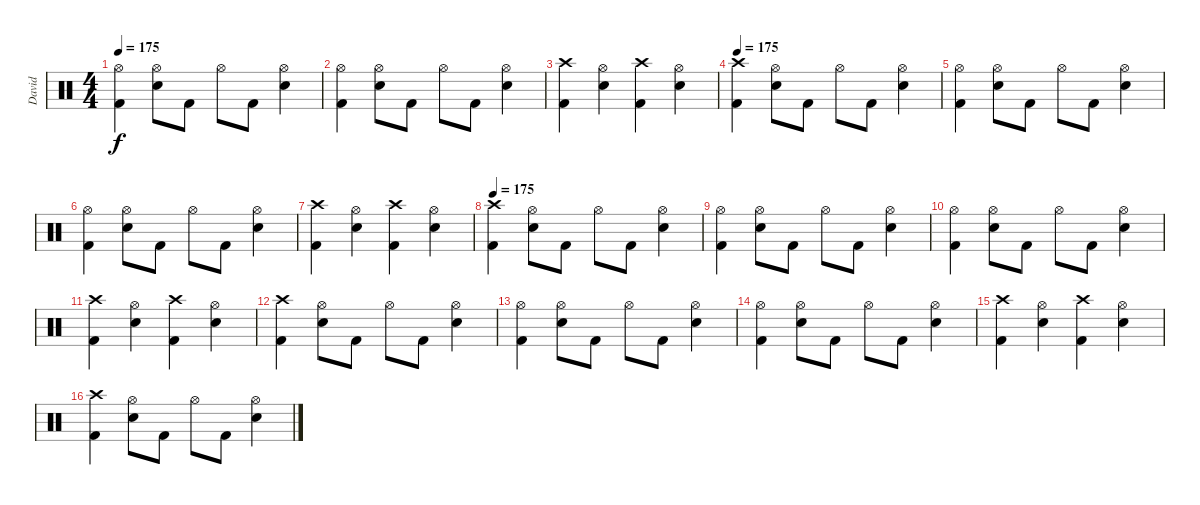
\track ("David" "David") {instrument percussion}
\staff {score}
\articulation defaults
\ts (4 4)
\tempo 175
\clef neutral
\ks c
("Hi-Hat (open)" "Kick (hit) 2").4{dy f} ("Hi-Hat (open)" "Snare (hit) 2").8 "Kick (hit) 2".8 "Hi-Hat (open)".8 "Kick (hit) 2".8 ("Hi-Hat (open)" "Snare (hit) 2").4 |
("Hi-Hat (open)" "Kick (hit) 2").4 ("Hi-Hat (open)" "Snare (hit) 2").8 "Kick (hit) 2".8 "Hi-Hat (open)".8 "Kick (hit) 2".8 ("Hi-Hat (open)" "Snare (hit) 2").4 |
("Crash high (hit)" "Kick (hit) 2").4 ("Hi-Hat (open)" "Snare (hit) 2").4 ("Crash high (hit)" "Kick (hit) 2").4 ("Hi-Hat (open)" "Snare (hit) 2").4 |
\tempo 175
("Crash high (hit)" "Kick (hit) 2").4 ("Hi-Hat (open)" "Snare (hit) 2").8 "Kick (hit) 2".8 "Hi-Hat (open)".8 "Kick (hit) 2".8 ("Hi-Hat (open)" "Snare (hit) 2").4 |
("Hi-Hat (open)" "Kick (hit) 2").4 ("Hi-Hat (open)" "Snare (hit) 2").8 "Kick (hit) 2".8 "Hi-Hat (open)".8 "Kick (hit) 2".8 ("Hi-Hat (open)" "Snare (hit) 2").4 |
("Hi-Hat (open)" "Kick (hit) 2").4 ("Hi-Hat (open)" "Snare (hit) 2").8 "Kick (hit) 2".8 "Hi-Hat (open)".8 "Kick (hit) 2".8 ("Hi-Hat (open)" "Snare (hit) 2").4 |
("Crash high (hit)" "Kick (hit) 2").4 ("Hi-Hat (open)" "Snare (hit) 2").4 ("Crash high (hit)" "Kick (hit) 2").4 ("Hi-Hat (open)" "Snare (hit) 2").4 |
\tempo 175
("Crash high (hit)" "Kick (hit) 2").4 ("Hi-Hat (open)" "Snare (hit) 2").8 "Kick (hit) 2".8 "Hi-Hat (open)".8 "Kick (hit) 2".8 ("Hi-Hat (open)" "Snare (hit) 2").4 |
("Hi-Hat (open)" "Kick (hit) 2").4 ("Hi-Hat (open)" "Snare (hit) 2").8 "Kick (hit) 2".8 "Hi-Hat (open)".8 "Kick (hit) 2".8 ("Hi-Hat (open)" "Snare (hit) 2").4 |
("Hi-Hat (open)" "Kick (hit) 2").4 ("Hi-Hat (open)" "Snare (hit) 2").8 "Kick (hit) 2".8 "Hi-Hat (open)".8 "Kick (hit) 2".8 ("Hi-Hat (open)" "Snare (hit) 2").4 |
("Crash high (hit)" "Kick (hit) 2").4 ("Hi-Hat (open)" "Snare (hit) 2").4 ("Crash high (hit)" "Kick (hit) 2").4 ("Hi-Hat (open)" "Snare (hit) 2").4 |
("Crash high (hit)" "Kick (hit) 2").4 ("Hi-Hat (open)" "Snare (hit) 2").8 "Kick (hit) 2".8 "Hi-Hat (open)".8 "Kick (hit) 2".8 ("Hi-Hat (open)" "Snare (hit) 2").4 |
("Hi-Hat (open)" "Kick (hit) 2").4 ("Hi-Hat (open)" "Snare (hit) 2").8 "Kick (hit) 2".8 "Hi-Hat (open)".8 "Kick (hit) 2".8 ("Hi-Hat (open)" "Snare (hit) 2").4 |
("Hi-Hat (open)" "Kick (hit) 2").4 ("Hi-Hat (open)" "Snare (hit) 2").8 "Kick (hit) 2".8 "Hi-Hat (open)".8 "Kick (hit) 2".8 ("Hi-Hat (open)" "Snare (hit) 2").4 |
("Crash high (hit)" "Kick (hit) 2").4 ("Hi-Hat (open)" "Snare (hit) 2").4 ("Crash high (hit)" "Kick (hit) 2").4 ("Hi-Hat (open)" "Snare (hit) 2").4 |
("Crash high (hit)" "Kick (hit) 2").4 ("Hi-Hat (open)" "Snare (hit) 2").8 "Kick (hit) 2".8 "Hi-Hat (open)".8 "Kick (hit) 2".8 ("Hi-Hat (open)" "Snare (hit) 2").4
